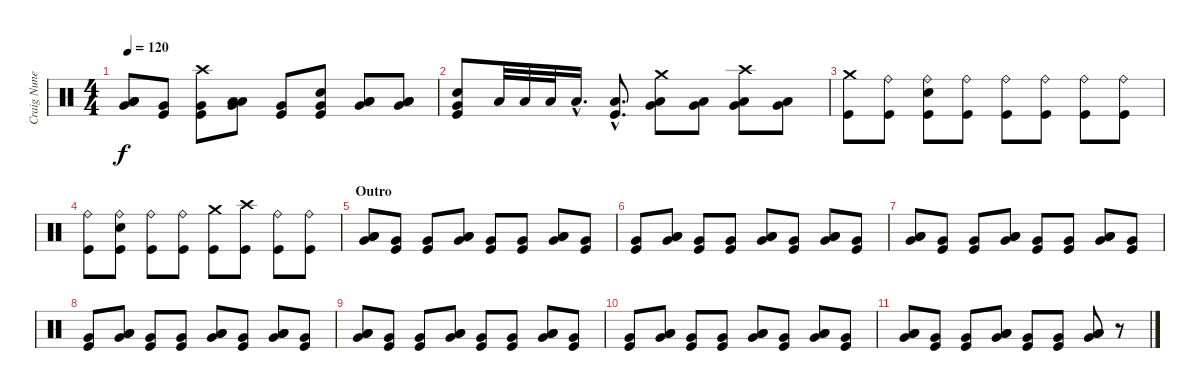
\track ("Craig Nunenmacher" "Craig Nune") {instrument percussion}
\staff {score}
\articulation defaults
\ts (4 4)
\tempo 120
\clef neutral
\ks c
("Low Tom (hit)" "Low Tom (hit)" "Very Low Tom (hit)").8{bd 120 dy f} ("Very Low Tom (hit)" "Kick (hit)").8 ("Crash high (hit)" "Very Low Tom (hit)" "Kick (hit)").8 ("Low Tom (hit)" "Low Tom (hit)" "Very Low Tom (hit)").8{bd 120} ("Very Low Tom (hit)" "Kick (hit)").8 ("Snare (hit) 2" "Very Low Tom (hit)" "Kick (hit)").8 ("Low Tom (hit)" "Low Tom (hit)" "Very Low Tom (hit)").8{bd 120} ("Low Tom (hit)" "Low Tom (hit)" "Very Low Tom (hit)").8{bd 120} |
("Snare (hit) 2" "Very Low Tom (hit)" "Kick (hit)").8 "Low Tom (hit)".32 "Low Tom (hit)".32 "Low Tom (hit)".32 "Low Tom (hit)"{hac}.16{d} ("Low Tom (hit)"{hac} "Kick (hit)"{hac}).8{d} ("Crash medium (hit)" "Low Tom (hit)" "Very Low Tom (hit)").8 ("Low Tom (hit)" "Very Low Tom (hit)").8 ("Crash high (hit)" "Low Tom (hit)" "Very Low Tom (hit)").8 ("Low Tom (hit)" "Very Low Tom (hit)").8 |
("Crash medium (hit)" "Kick (hit)").8 ("Ride (bell)" "Kick (hit)").8 ("Ride (bell)" "Snare (hit) 2" "Kick (hit)").8 ("Ride (bell)" "Kick (hit)").8 ("Ride (bell)" "Kick (hit)").8 ("Ride (bell)" "Kick (hit)").8 ("Ride (bell)" "Kick (hit)").8 ("Ride (bell)" "Kick (hit)").8 |
("Ride (bell)" "Kick (hit)").8 ("Ride (bell)" "Snare (hit) 2" "Kick (hit)").8 ("Ride (bell)" "Kick (hit)").8 ("Ride (bell)" "Kick (hit)").8 ("Crash medium (hit)" "Kick (hit)").8 ("Crash high (hit)" "Kick (hit)").8 ("Ride (bell)" "Kick (hit)").8 ("Ride (bell)" "Kick (hit)").8 |
\section ("" "Outro")
("Low Tom (hit)" "Low Tom (hit)" "Very Low Tom (hit)").8{bd 120} ("Very Low Tom (hit)" "Kick (hit)").8 ("Very Low Tom (hit)" "Kick (hit)").8 ("Low Tom (hit)" "Low Tom (hit)" "Very Low Tom (hit)").8{bd 120} ("Very Low Tom (hit)" "Kick (hit)").8 ("Very Low Tom (hit)" "Kick (hit)").8 ("Low Tom (hit)" "Low Tom (hit)" "Very Low Tom (hit)").8{bd 120} ("Very Low Tom (hit)" "Kick (hit)").8 |
("Very Low Tom (hit)" "Kick (hit)").8 ("Low Tom (hit)" "Low Tom (hit)" "Very Low Tom (hit)").8{bd 120} ("Very Low Tom (hit)" "Kick (hit)").8 ("Very Low Tom (hit)" "Kick (hit)").8 ("Low Tom (hit)" "Low Tom (hit)" "Very Low Tom (hit)").8{bd 120} ("Very Low Tom (hit)" "Kick (hit)").8 ("Low Tom (hit)" "Low Tom (hit)" "Very Low Tom (hit)").8{bd 120} ("Very Low Tom (hit)" "Kick (hit)").8 |
("Low Tom (hit)" "Low Tom (hit)" "Very Low Tom (hit)").8{bd 120} ("Very Low Tom (hit)" "Kick (hit)").8 ("Very Low Tom (hit)" "Kick (hit)").8 ("Low Tom (hit)" "Low Tom (hit)" "Very Low Tom (hit)").8{bd 120} ("Very Low Tom (hit)" "Kick (hit)").8 ("Very Low Tom (hit)" "Kick (hit)").8 ("Low Tom (hit)" "Low Tom (hit)" "Very Low Tom (hit)").8{bd 120} ("Very Low Tom (hit)" "Kick (hit)").8 |
("Very Low Tom (hit)" "Kick (hit)").8 ("Low Tom (hit)" "Low Tom (hit)" "Very Low Tom (hit)").8{bd 120} ("Very Low Tom (hit)" "Kick (hit)").8 ("Very Low Tom (hit)" "Kick (hit)").8 ("Low Tom (hit)" "Low Tom (hit)" "Very Low Tom (hit)").8{bd 120} ("Very Low Tom (hit)" "Kick (hit)").8 ("Low Tom (hit)" "Low Tom (hit)" "Very Low Tom (hit)").8{bd 120} ("Very Low Tom (hit)" "Kick (hit)").8 |
("Low Tom (hit)" "Low Tom (hit)" "Very Low Tom (hit)").8{bd 120} ("Very Low Tom (hit)" "Kick (hit)").8 ("Very Low Tom (hit)" "Kick (hit)").8 ("Low Tom (hit)" "Low Tom (hit)" "Very Low Tom (hit)").8{bd 120} ("Very Low Tom (hit)" "Kick (hit)").8 ("Very Low Tom (hit)" "Kick (hit)").8 ("Low Tom (hit)" "Low Tom (hit)" "Very Low Tom (hit)").8{bd 120} ("Very Low Tom (hit)" "Kick (hit)").8 |
("Very Low Tom (hit)" "Kick (hit)").8 ("Low Tom (hit)" "Low Tom (hit)" "Very Low Tom (hit)").8{bd 120} ("Very Low Tom (hit)" "Kick (hit)").8 ("Very Low Tom (hit)" "Kick (hit)").8 ("Low Tom (hit)" "Low Tom (hit)" "Very Low Tom (hit)").8{bd 120} ("Very Low Tom (hit)" "Kick (hit)").8 ("Low Tom (hit)" "Low Tom (hit)" "Very Low Tom (hit)").8{bd 120} ("Very Low Tom (hit)" "Kick (hit)").8 |
("Low Tom (hit)" "Low Tom (hit)" "Very Low Tom (hit)").8{bd 120} ("Very Low Tom (hit)" "Kick (hit)").8 ("Very Low Tom (hit)" "Kick (hit)").8 ("Low Tom (hit)" "Low Tom (hit)" "Very Low Tom (hit)").8{bd 120} ("Very Low Tom (hit)" "Kick (hit)").8 ("Very Low Tom (hit)" "Kick (hit)").8 ("Low Tom (hit)" "Low Tom (hit)" "Very Low Tom (hit)").8{bd 120} r.8
